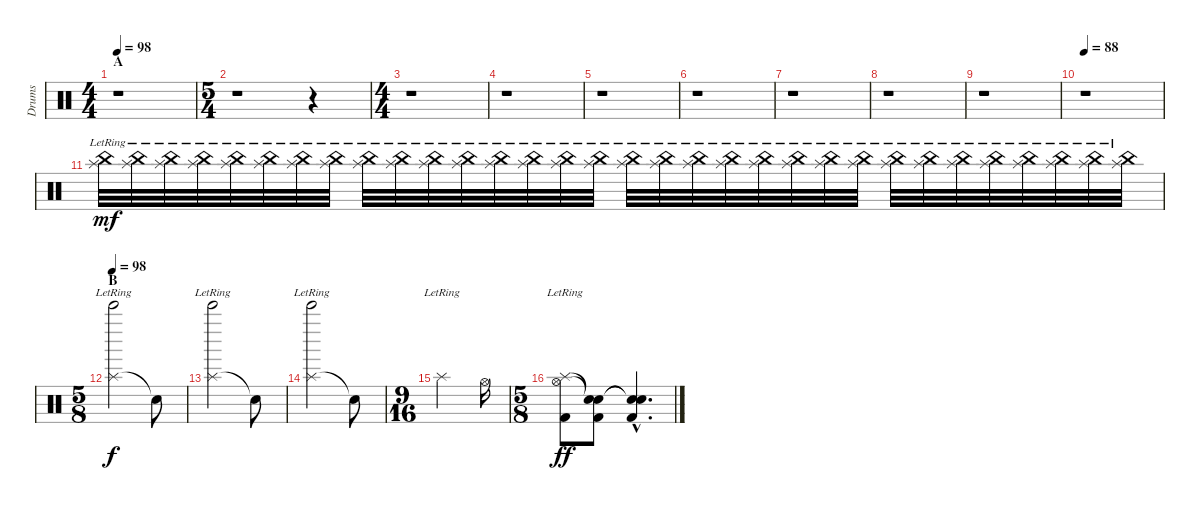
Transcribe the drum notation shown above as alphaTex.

\track ("Drums" "Drums") {instrument percussion}
\staff {score}
\articulation defaults
\ts (4 4)
\section ("" "A")
\tempo 98
\tempo 72
\tempo 98
\clef neutral
\ks c
r.1{dy mf} |
\ts (5 4)
r.1 r.4 |
\ts (4 4)
r.1 |
r.1 |
r.1 |
r.1 |
r.1 |
r.1 |
r.1 |
\tempo 88
r.1{volume 0} |
("China (hit)"{lr} "Splash (hit)").32{volume 16} ("China (hit)"{lr} "Splash (hit)").32 ("China (hit)"{lr} "Splash (hit)").32 ("China (hit)"{lr} "Splash (hit)").32 ("China (hit)"{lr} "Splash (hit)").32 ("China (hit)"{lr} "Splash (hit)").32 ("China (hit)"{lr} "Splash (hit)").32 ("China (hit)"{lr} "Splash (hit)").32 ("China (hit)"{lr} "Splash (hit)").32 ("China (hit)"{lr} "Splash (hit)").32 ("China (hit)"{lr} "Splash (hit)").32 ("China (hit)"{lr} "Splash (hit)").32 ("China (hit)"{lr} "Splash (hit)").32 ("China (hit)"{lr} "Splash (hit)").32 ("China (hit)"{lr} "Splash (hit)").32 ("China (hit)"{lr} "Splash (hit)").32 ("China (hit)"{lr} "Splash (hit)").32 ("China (hit)"{lr} "Splash (hit)").32 ("China (hit)"{lr} "Splash (hit)").32 ("China (hit)"{lr} "Splash (hit)").32 ("China (hit)"{lr} "Splash (hit)").32 ("China (hit)"{lr} "Splash (hit)").32 ("China (hit)"{lr} "Splash (hit)").32 ("China (hit)"{lr} "Splash (hit)").32 ("China (hit)"{lr} "Splash (hit)").32 ("China (hit)"{lr} "Splash (hit)").32 ("China (hit)"{lr} "Splash (hit)").32 ("China (hit)"{lr} "Splash (hit)").32 ("China (hit)"{lr} "Splash (hit)").32 ("China (hit)"{lr} "Splash (hit)").32 ("China (hit)"{lr} "Splash (hit)").32 ("China (hit)"{lr} "Splash (hit)").32 |
\ts (5 8)
\section ("" "B")
\tempo 98
("Splash (hit)"{lr} "Bell Tree (hit)").2{dy f} "Snare (hit)"{t}.8 |
("Splash (hit)"{lr} "Bell Tree (hit)").2 "Snare (hit)"{t}.8 |
("Splash (hit)"{lr} "Bell Tree (hit)").2 "Snare (hit)"{t}.8 |
\ts (9 16)
"Splash (hit)"{lr}.2 "Hi-Hat (open)".16 |
\ts (5 8)
("Splash (hit)"{lr} "Hi-Hat (open)" "Kick (hit) 2").8{dy ff} ("Snare (hit)"{t} "Snare (hit)"{t} "Kick (hit) 2").8 ("Snare (hit)"{hac t} "Snare (hit)"{hac t} "Kick (hit) 2"{hac}).4{d}
